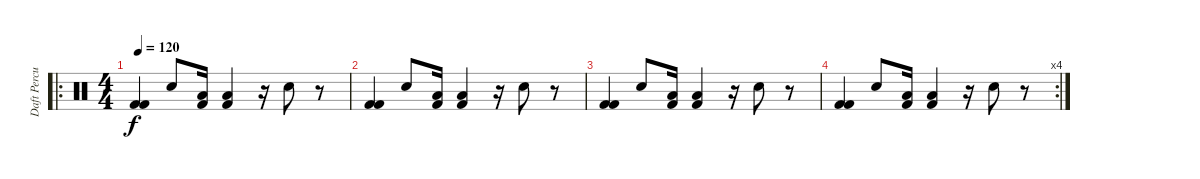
\track ("Daft Percussion 2" "Daft Percu") {instrument percussion}
\staff {score}
\articulation defaults
\ro
\ts (4 4)
\tempo 120
\clef neutral
\ks c
("Kick (hit) 2" "Kick (hit) 2").4{dy f} "Electric Snare (hit)".8 ("Low Floor Tom (hit)" "Kick (hit) 2").16 ("Low Floor Tom (hit)" "Kick (hit) 2").4 r.16 "Electric Snare (hit)".8 r.8 |
("Kick (hit) 2" "Kick (hit) 2").4 "Electric Snare (hit)".8 ("Low Floor Tom (hit)" "Kick (hit) 2").16 ("Low Floor Tom (hit)" "Kick (hit) 2").4 r.16 "Electric Snare (hit)".8 r.8 |
("Kick (hit) 2" "Kick (hit) 2").4 "Electric Snare (hit)".8 ("Low Floor Tom (hit)" "Kick (hit) 2").16 ("Low Floor Tom (hit)" "Kick (hit) 2").4 r.16 "Electric Snare (hit)".8 r.8 |
\rc 4
("Kick (hit) 2" "Kick (hit) 2").4 "Electric Snare (hit)".8 ("Low Floor Tom (hit)" "Kick (hit) 2").16 ("Low Floor Tom (hit)" "Kick (hit) 2").4 r.16 "Electric Snare (hit)".8 r.8
